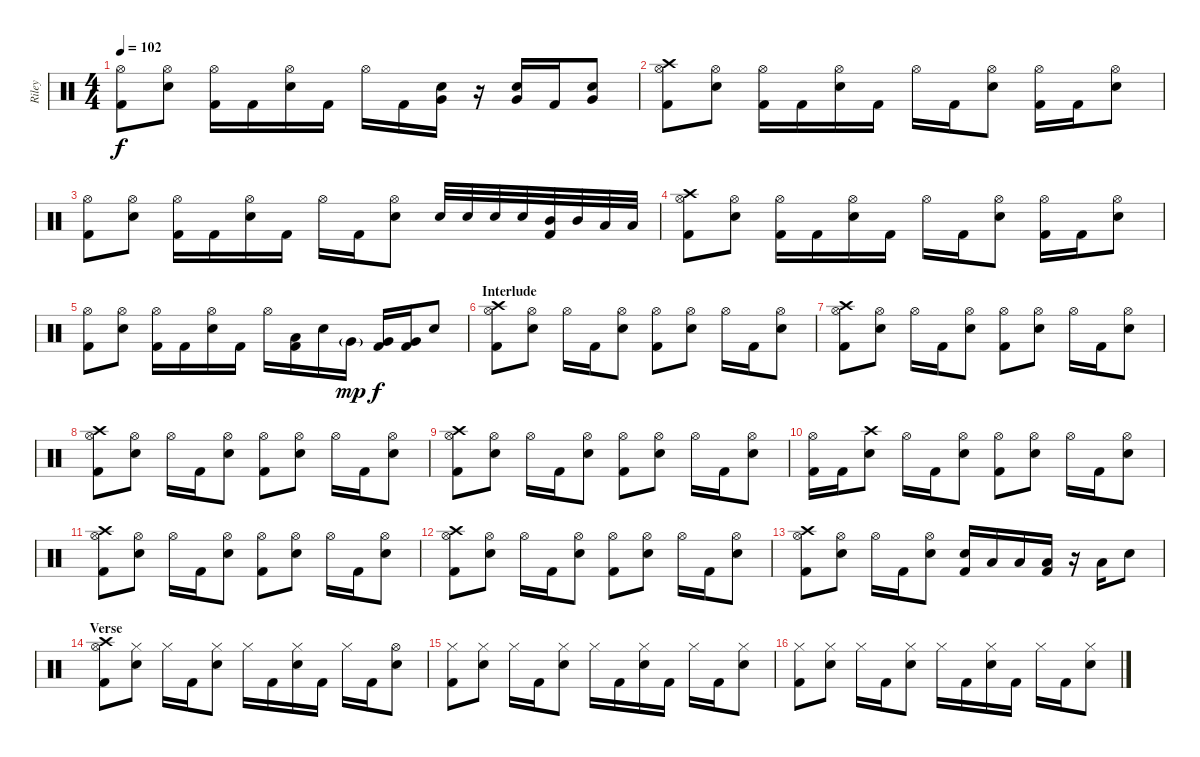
\track ("Riley" "Riley") {instrument percussion}
\staff {score}
\articulation defaults
\ts (4 4)
\tempo 102
\clef neutral
\ks c
("Hi-Hat (open)" "Kick (hit) 2").8{dy f} ("Hi-Hat (open)" "Electric Snare (hit)").8 ("Hi-Hat (open)" "Kick (hit) 2").16 "Kick (hit) 2".16 ("Hi-Hat (open)" "Electric Snare (hit)").16 "Kick (hit) 2".16 "Hi-Hat (open)".16 "Kick (hit) 2".16 ("Very Low Tom (hit)" "Electric Snare (hit)").16 r.16 ("Very Low Tom (hit)" "Electric Snare (hit)").16 "Kick (hit) 2".16 ("Very Low Tom (hit)" "Electric Snare (hit)").8 |
("Crash high (hit)" "Hi-Hat (open)" "Kick (hit) 2").8 ("Hi-Hat (open)" "Electric Snare (hit)").8 ("Hi-Hat (open)" "Kick (hit) 2").16 "Kick (hit) 2".16 ("Hi-Hat (open)" "Electric Snare (hit)").16 "Kick (hit) 2".16 "Hi-Hat (open)".16 "Kick (hit) 2".16 ("Hi-Hat (open)" "Electric Snare (hit)").8 ("Hi-Hat (open)" "Kick (hit) 2").16 "Kick (hit) 2".16 ("Hi-Hat (open)" "Electric Snare (hit)").8 |
("Hi-Hat (open)" "Kick (hit) 2").8 ("Hi-Hat (open)" "Electric Snare (hit)").8 ("Hi-Hat (open)" "Kick (hit) 2").16 "Kick (hit) 2".16 ("Hi-Hat (open)" "Electric Snare (hit)").16 "Kick (hit) 2".16 "Hi-Hat (open)".16 "Kick (hit) 2".16 ("Hi-Hat (open)" "Electric Snare (hit)").8 "Electric Snare (hit)".32 "Electric Snare (hit)".32 "Electric Snare (hit)".32 "Electric Snare (hit)".32 ("Mid Tom (hit)" "Kick (hit) 2").32 "Mid Tom (hit)".32 "Low Tom (hit)".32 "Low Tom (hit)".32 |
("Crash high (hit)" "Hi-Hat (open)" "Kick (hit) 2").8 ("Hi-Hat (open)" "Electric Snare (hit)").8 ("Hi-Hat (open)" "Kick (hit) 2").16 "Kick (hit) 2".16 ("Hi-Hat (open)" "Electric Snare (hit)").16 "Kick (hit) 2".16 "Hi-Hat (open)".16 "Kick (hit) 2".16 ("Hi-Hat (open)" "Electric Snare (hit)").8 ("Hi-Hat (open)" "Kick (hit) 2").16 "Kick (hit) 2".16 ("Hi-Hat (open)" "Electric Snare (hit)").8 |
("Hi-Hat (open)" "Kick (hit) 2").8 ("Hi-Hat (open)" "Electric Snare (hit)").8 ("Hi-Hat (open)" "Kick (hit) 2").16 "Kick (hit) 2".16 ("Hi-Hat (open)" "Electric Snare (hit)").16 "Kick (hit) 2".16 "Hi-Hat (open)".16 ("Low Tom (hit)" "Kick (hit) 2").16 "Electric Snare (hit)".16 "Very Low Tom (hit)"{g}.16{dy mp} ("Very Low Tom (hit)" "Kick (hit) 2").16{dy f} ("Very Low Tom (hit)" "Kick (hit) 2").16 "Electric Snare (hit)".8 |
\section ("" "Interlude")
("Crash high (hit)" "Hi-Hat (open)" "Kick (hit) 2").8 ("Hi-Hat (open)" "Electric Snare (hit)").8 "Hi-Hat (open)".16 "Kick (hit) 2".16 ("Hi-Hat (open)" "Electric Snare (hit)").8 ("Hi-Hat (open)" "Kick (hit) 2").8 ("Hi-Hat (open)" "Electric Snare (hit)").8 "Hi-Hat (open)".16 "Kick (hit) 2".16 ("Hi-Hat (open)" "Electric Snare (hit)").8 |
("Crash high (hit)" "Hi-Hat (open)" "Kick (hit) 2").8 ("Hi-Hat (open)" "Electric Snare (hit)").8 "Hi-Hat (open)".16 "Kick (hit) 2".16 ("Hi-Hat (open)" "Electric Snare (hit)").8 ("Hi-Hat (open)" "Kick (hit) 2").8 ("Hi-Hat (open)" "Electric Snare (hit)").8 "Hi-Hat (open)".16 "Kick (hit) 2".16 ("Hi-Hat (open)" "Electric Snare (hit)").8 |
("Crash high (hit)" "Hi-Hat (open)" "Kick (hit) 2").8 ("Hi-Hat (open)" "Electric Snare (hit)").8 "Hi-Hat (open)".16 "Kick (hit) 2".16 ("Hi-Hat (open)" "Electric Snare (hit)").8 ("Hi-Hat (open)" "Kick (hit) 2").8 ("Hi-Hat (open)" "Electric Snare (hit)").8 "Hi-Hat (open)".16 "Kick (hit) 2".16 ("Hi-Hat (open)" "Electric Snare (hit)").8 |
("Crash high (hit)" "Hi-Hat (open)" "Kick (hit) 2").8 ("Hi-Hat (open)" "Electric Snare (hit)").8 "Hi-Hat (open)".16 "Kick (hit) 2".16 ("Hi-Hat (open)" "Electric Snare (hit)").8 ("Hi-Hat (open)" "Kick (hit) 2").8 ("Hi-Hat (open)" "Electric Snare (hit)").8 "Hi-Hat (open)".16 "Kick (hit) 2".16 ("Hi-Hat (open)" "Electric Snare (hit)").8 |
("Hi-Hat (open)" "Kick (hit) 2").16 "Kick (hit) 2".16 ("Crash high (hit)" "Electric Snare (hit)").8 "Hi-Hat (open)".16 "Kick (hit) 2".16 ("Hi-Hat (open)" "Electric Snare (hit)").8 ("Hi-Hat (open)" "Kick (hit) 2").8 ("Hi-Hat (open)" "Electric Snare (hit)").8 "Hi-Hat (open)".16 "Kick (hit) 2".16 ("Hi-Hat (open)" "Electric Snare (hit)").8 |
("Crash high (hit)" "Hi-Hat (open)" "Kick (hit) 2").8 ("Hi-Hat (open)" "Electric Snare (hit)").8 "Hi-Hat (open)".16 "Kick (hit) 2".16 ("Hi-Hat (open)" "Electric Snare (hit)").8 ("Hi-Hat (open)" "Kick (hit) 2").8 ("Hi-Hat (open)" "Electric Snare (hit)").8 "Hi-Hat (open)".16 "Kick (hit) 2".16 ("Hi-Hat (open)" "Electric Snare (hit)").8 |
("Crash high (hit)" "Hi-Hat (open)" "Kick (hit) 2").8 ("Hi-Hat (open)" "Electric Snare (hit)").8 "Hi-Hat (open)".16 "Kick (hit) 2".16 ("Hi-Hat (open)" "Electric Snare (hit)").8 ("Hi-Hat (open)" "Kick (hit) 2").8 ("Hi-Hat (open)" "Electric Snare (hit)").8 "Hi-Hat (open)".16 "Kick (hit) 2".16 ("Hi-Hat (open)" "Electric Snare (hit)").8 |
("Crash high (hit)" "Hi-Hat (open)" "Kick (hit) 2").8 ("Hi-Hat (open)" "Electric Snare (hit)").8 "Hi-Hat (open)".16 "Kick (hit) 2".16 ("Hi-Hat (open)" "Electric Snare (hit)").8 ("Electric Snare (hit)" "Kick (hit) 2").16 "Low Tom (hit)".16 "Low Tom (hit)".16 ("Low Tom (hit)" "Kick (hit) 2").16 r.16 "Low Tom (hit)".16 "Electric Snare (hit)".8 |
\section ("" "Verse")
("Crash high (hit)" "Hi-Hat (open)" "Kick (hit) 2").8 ("Hi-Hat (closed)" "Electric Snare (hit)").8 "Hi-Hat (closed)".16 "Kick (hit) 2".16 ("Hi-Hat (closed)" "Electric Snare (hit)").8 "Hi-Hat (closed)".16 "Kick (hit) 2".16 ("Hi-Hat (closed)" "Electric Snare (hit)").16 "Kick (hit) 2".16 "Hi-Hat (closed)".16 "Kick (hit) 2".16 ("Hi-Hat (open)" "Electric Snare (hit)").8 |
("Hi-Hat (closed)" "Kick (hit) 2").8 ("Hi-Hat (closed)" "Electric Snare (hit)").8 "Hi-Hat (closed)".16 "Kick (hit) 2".16 ("Hi-Hat (closed)" "Electric Snare (hit)").8 "Hi-Hat (closed)".16 "Kick (hit) 2".16 ("Hi-Hat (closed)" "Electric Snare (hit)").16 "Kick (hit) 2".16 "Hi-Hat (closed)".16 "Kick (hit) 2".16 ("Hi-Hat (closed)" "Electric Snare (hit)").8 |
("Hi-Hat (closed)" "Kick (hit) 2").8 ("Hi-Hat (closed)" "Electric Snare (hit)").8 "Hi-Hat (closed)".16 "Kick (hit) 2".16 ("Hi-Hat (closed)" "Electric Snare (hit)").8 "Hi-Hat (closed)".16 "Kick (hit) 2".16 ("Hi-Hat (closed)" "Electric Snare (hit)").16 "Kick (hit) 2".16 "Hi-Hat (closed)".16 "Kick (hit) 2".16 ("Hi-Hat (closed)" "Electric Snare (hit)").8
